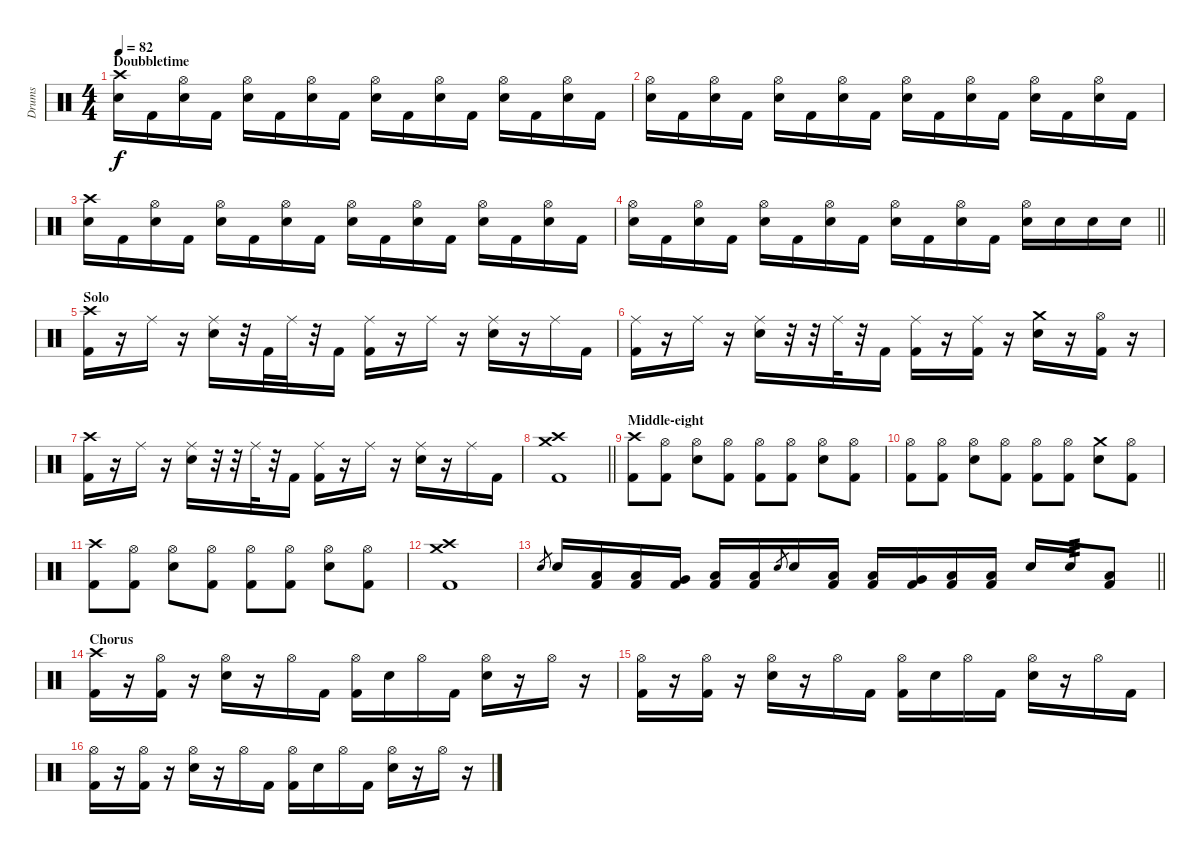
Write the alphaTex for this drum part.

\track ("Drums" "Drums") {instrument percussion}
\staff {score}
\articulation defaults
\ts (4 4)
\section ("" "Doubbletime")
\tempo 82
\clef neutral
\ks c
("Crash high (hit)" "Electric Snare (hit)").16{dy f} "Kick (hit) 2".16 ("Hi-Hat (open)" "Electric Snare (hit)").16 "Kick (hit) 2".16 ("Hi-Hat (open)" "Electric Snare (hit)").16 "Kick (hit) 2".16 ("Hi-Hat (open)" "Electric Snare (hit)").16 "Kick (hit) 2".16 ("Hi-Hat (open)" "Electric Snare (hit)").16 "Kick (hit) 2".16 ("Hi-Hat (open)" "Electric Snare (hit)").16 "Kick (hit) 2".16 ("Hi-Hat (open)" "Electric Snare (hit)").16 "Kick (hit) 2".16 ("Hi-Hat (open)" "Electric Snare (hit)").16 "Kick (hit) 2".16 |
("Hi-Hat (open)" "Electric Snare (hit)").16 "Kick (hit) 2".16 ("Hi-Hat (open)" "Electric Snare (hit)").16 "Kick (hit) 2".16 ("Hi-Hat (open)" "Electric Snare (hit)").16 "Kick (hit) 2".16 ("Hi-Hat (open)" "Electric Snare (hit)").16 "Kick (hit) 2".16 ("Hi-Hat (open)" "Electric Snare (hit)").16 "Kick (hit) 2".16 ("Hi-Hat (open)" "Electric Snare (hit)").16 "Kick (hit) 2".16 ("Hi-Hat (open)" "Electric Snare (hit)").16 "Kick (hit) 2".16 ("Hi-Hat (open)" "Electric Snare (hit)").16 "Kick (hit) 2".16 |
("Crash high (hit)" "Electric Snare (hit)").16 "Kick (hit) 2".16 ("Hi-Hat (open)" "Electric Snare (hit)").16 "Kick (hit) 2".16 ("Hi-Hat (open)" "Electric Snare (hit)").16 "Kick (hit) 2".16 ("Hi-Hat (open)" "Electric Snare (hit)").16 "Kick (hit) 2".16 ("Hi-Hat (open)" "Electric Snare (hit)").16 "Kick (hit) 2".16 ("Hi-Hat (open)" "Electric Snare (hit)").16 "Kick (hit) 2".16 ("Hi-Hat (open)" "Electric Snare (hit)").16 "Kick (hit) 2".16 ("Hi-Hat (open)" "Electric Snare (hit)").16 "Kick (hit) 2".16 |
\barLineRight lightlight
("Hi-Hat (open)" "Electric Snare (hit)").16 "Kick (hit) 2".16 ("Hi-Hat (open)" "Electric Snare (hit)").16 "Kick (hit) 2".16 ("Hi-Hat (open)" "Electric Snare (hit)").16 "Kick (hit) 2".16 ("Hi-Hat (open)" "Electric Snare (hit)").16 "Kick (hit) 2".16 ("Hi-Hat (open)" "Electric Snare (hit)").16 "Kick (hit) 2".16 ("Hi-Hat (open)" "Electric Snare (hit)").16 "Kick (hit) 2".16 ("Hi-Hat (open)" "Electric Snare (hit)").16 "Electric Snare (hit)".16 "Electric Snare (hit)".16 "Electric Snare (hit)".16 |
\section ("" "Solo")
("Crash high (hit)" "Kick (hit) 2").16 r.16 "Ride (middle)".16 r.16 ("Ride (middle)" "Electric Snare (hit)").16 r.32 "Kick (hit) 2".32 "Ride (middle)".32 r.32 "Kick (hit) 2".16 ("Ride (middle)" "Kick (hit) 2").16 r.16 "Ride (middle)".16 r.16 ("Ride (middle)" "Electric Snare (hit)").16 r.16 "Ride (middle)".16 "Kick (hit) 2".16 |
("Ride (middle)" "Kick (hit) 2").16 r.16 "Ride (middle)".16 r.16 ("Ride (middle)" "Electric Snare (hit)").16 r.32 r.32 "Ride (middle)".32 r.32 "Kick (hit) 2".16 ("Ride (middle)" "Kick (hit) 2").16 r.16 ("Ride (middle)" "Kick (hit) 2").16 r.16 ("Crash medium (hit)" "Electric Snare (hit)").16 r.16 ("Hi-Hat (open)" "Kick (hit) 2").16 r.16 |
("Crash high (hit)" "Kick (hit) 2").16 r.16 "Ride (middle)".16 r.16 ("Ride (middle)" "Electric Snare (hit)").16 r.32 r.32 "Ride (middle)".32 r.32 "Kick (hit) 2".16 ("Ride (middle)" "Kick (hit) 2").16 r.16 "Ride (middle)".16 r.16 ("Ride (middle)" "Electric Snare (hit)").16 r.16 "Ride (middle)".16 "Kick (hit) 2".16 |
\barLineRight lightlight
("Crash high (hit)" "Crash medium (hit)" "Kick (hit) 2").1 |
\section ("" "Middle-eight")
("Crash high (hit)" "Kick (hit) 2").8 ("Hi-Hat (open)" "Kick (hit) 2").8 ("Hi-Hat (open)" "Electric Snare (hit)").8 ("Hi-Hat (open)" "Kick (hit) 2").8 ("Hi-Hat (open)" "Kick (hit) 2").8 ("Hi-Hat (open)" "Kick (hit) 2").8 ("Hi-Hat (open)" "Electric Snare (hit)").8 ("Hi-Hat (open)" "Kick (hit) 2").8 |
("Hi-Hat (open)" "Kick (hit) 2").8 ("Hi-Hat (open)" "Kick (hit) 2").8 ("Hi-Hat (open)" "Electric Snare (hit)").8 ("Hi-Hat (open)" "Kick (hit) 2").8 ("Hi-Hat (open)" "Kick (hit) 2").8 ("Hi-Hat (open)" "Kick (hit) 2").8 ("Crash medium (hit)" "Electric Snare (hit)").8 ("Hi-Hat (open)" "Kick (hit) 2").8 |
("Crash high (hit)" "Kick (hit) 2").8 ("Hi-Hat (open)" "Kick (hit) 2").8 ("Hi-Hat (open)" "Electric Snare (hit)").8 ("Hi-Hat (open)" "Kick (hit) 2").8 ("Hi-Hat (open)" "Kick (hit) 2").8 ("Hi-Hat (open)" "Kick (hit) 2").8 ("Hi-Hat (open)" "Electric Snare (hit)").8 ("Hi-Hat (open)" "Kick (hit) 2").8 |
("Crash high (hit)" "Crash medium (hit)" "Kick (hit) 2").1 |
\barLineRight lightlight "Electric Snare (hit)".8{gr} "Electric Snare (hit)".16
("Low Tom (hit)" "Kick (hit) 2").16 ("Low Tom (hit)" "Kick (hit) 2").16 ("Very Low Tom (hit)" "Kick (hit) 2").16 ("Low Floor Tom (hit)" "Kick (hit) 2").16 ("Low Floor Tom (hit)" "Kick (hit) 2").16 "Electric Snare (hit)".8{gr} "Electric Snare (hit)".16 ("Low Tom (hit)" "Kick (hit) 2").16 ("Low Tom (hit)" "Kick (hit) 2").16 ("Very Low Tom (hit)" "Kick (hit) 2").16 ("Low Floor Tom (hit)" "Kick (hit) 2").16 ("Low Floor Tom (hit)" "Kick (hit) 2").16 "Electric Snare (hit)".16 "Electric Snare (hit)".16{tp 3} ("Low Floor Tom (hit)" "Kick (hit) 2").8 |
\section ("" "Chorus")
("Crash high (hit)" "Kick (hit) 2").16 r.16 ("Hi-Hat (open)" "Kick (hit) 2").16 r.16 ("Hi-Hat (open)" "Electric Snare (hit)").16 r.16 "Hi-Hat (open)".16 "Kick (hit) 2".16 ("Hi-Hat (open)" "Kick (hit) 2").16 "Electric Snare (hit)".16 "Hi-Hat (open)".16 "Kick (hit) 2".16 ("Hi-Hat (open)" "Electric Snare (hit)").16 r.16 "Hi-Hat (open)".16 r.16 |
("Hi-Hat (open)" "Kick (hit) 2").16 r.16 ("Hi-Hat (open)" "Kick (hit) 2").16 r.16 ("Hi-Hat (open)" "Electric Snare (hit)").16 r.16 "Hi-Hat (open)".16 "Kick (hit) 2".16 ("Hi-Hat (open)" "Kick (hit) 2").16 "Electric Snare (hit)".16 "Hi-Hat (open)".16 "Kick (hit) 2".16 ("Hi-Hat (open)" "Electric Snare (hit)").16 r.16 "Hi-Hat (open)".16 "Kick (hit) 2".16 |
("Hi-Hat (open)" "Kick (hit) 2").16 r.16 ("Hi-Hat (open)" "Kick (hit) 2").16 r.16 ("Hi-Hat (open)" "Electric Snare (hit)").16 r.16 "Hi-Hat (open)".16 "Kick (hit) 2".16 ("Hi-Hat (open)" "Kick (hit) 2").16 "Electric Snare (hit)".16 "Hi-Hat (open)".16 "Kick (hit) 2".16 ("Hi-Hat (open)" "Electric Snare (hit)").16 r.16 "Hi-Hat (open)".16 r.16
